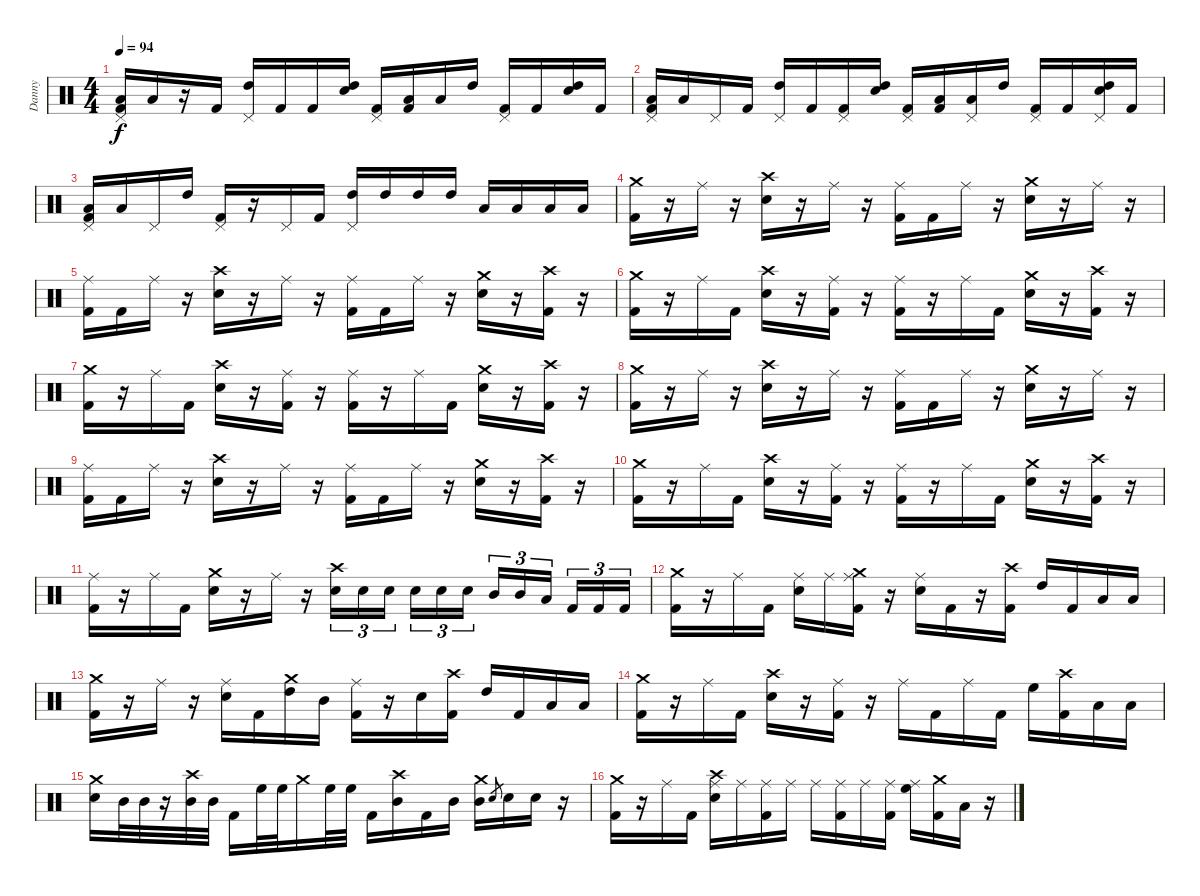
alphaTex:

\track ("Danny" "Danny") {instrument percussion}
\staff {score}
\articulation defaults
\ts (4 4)
\tempo 94
\clef neutral
\ks c
("Pedal Hi-Hat (hit)" "Low Floor Tom (hit)" "Kick (hit) 2").16{dy f} "Low Floor Tom (hit)".16 r.16 "Kick (hit) 2".16 ("Pedal Hi-Hat (hit)" "High Tom (hit)").16 "Kick (hit) 2".16 "Kick (hit) 2".16 ("High Tom (hit)" "Snare (hit) 2").16 ("Pedal Hi-Hat (hit)" "Kick (hit) 2").16 ("Low Floor Tom (hit)" "Kick (hit) 2").16 "Low Floor Tom (hit)".16 "High Tom (hit)".16 ("Pedal Hi-Hat (hit)" "Kick (hit) 2").16 "Kick (hit) 2".16 ("High Tom (hit)" "Snare (hit) 2").16 "Kick (hit) 2".16 |
("Pedal Hi-Hat (hit)" "Low Floor Tom (hit)" "Kick (hit) 2").16 "Low Floor Tom (hit)".16 "Pedal Hi-Hat (hit)".16 "Kick (hit) 2".16 ("Pedal Hi-Hat (hit)" "High Tom (hit)").16 "Kick (hit) 2".16 ("Pedal Hi-Hat (hit)" "Kick (hit) 2").16 ("High Tom (hit)" "Snare (hit) 2").16 ("Pedal Hi-Hat (hit)" "Kick (hit) 2").16 ("Low Floor Tom (hit)" "Kick (hit) 2").16 ("Pedal Hi-Hat (hit)" "Low Floor Tom (hit)").16 "High Tom (hit)".16 ("Pedal Hi-Hat (hit)" "Kick (hit) 2").16 "Kick (hit) 2".16 ("Pedal Hi-Hat (hit)" "High Tom (hit)" "Snare (hit) 2").16 "Kick (hit) 2".16 |
("Pedal Hi-Hat (hit)" "Low Floor Tom (hit)" "Kick (hit) 2").16 "Low Floor Tom (hit)".16 "Pedal Hi-Hat (hit)".16 "High Tom (hit)".16 ("Pedal Hi-Hat (hit)" "Kick (hit) 2").16 r.16 "Pedal Hi-Hat (hit)".16 "Kick (hit) 2".16 ("Pedal Hi-Hat (hit)" "High Tom (hit)").16 "High Tom (hit)".16 "High Tom (hit)".16 "High Tom (hit)".16 "Low Tom (hit)".16 "Low Tom (hit)".16 "Low Floor Tom (hit)".16 "Low Floor Tom (hit)".16 |
("Crash medium (hit)" "Kick (hit) 2").16 r.16 "Ride (middle)".16 r.16 ("Crash high (hit)" "Electric Snare (hit)").16 r.16 "Ride (middle)".16 r.16 ("Ride (middle)" "Kick (hit) 2").16 "Kick (hit) 2".16 "Ride (middle)".16 r.16 ("Crash medium (hit)" "Electric Snare (hit)").16 r.16 "Ride (middle)".16 r.16 |
("Ride (middle)" "Kick (hit) 2").16 "Kick (hit) 2".16 "Ride (middle)".16 r.16 ("Crash high (hit)" "Electric Snare (hit)").16 r.16 "Ride (middle)".16 r.16 ("Ride (middle)" "Kick (hit) 2").16 "Kick (hit) 2".16 "Ride (middle)".16 r.16 ("Crash medium (hit)" "Electric Snare (hit)").16 r.16 ("Crash high (hit)" "Kick (hit) 2").16 r.16 |
("Crash medium (hit)" "Kick (hit) 2").16 r.16 "Ride (middle)".16 "Kick (hit) 2".16 ("Crash high (hit)" "Electric Snare (hit)").16 r.16 ("Ride (middle)" "Kick (hit) 2").16 r.16 ("Ride (middle)" "Kick (hit) 2").16 r.16 "Ride (middle)".16 "Kick (hit) 2".16 ("Crash medium (hit)" "Electric Snare (hit)").16 r.16 ("Crash high (hit)" "Kick (hit) 2").16 r.16 |
("Crash medium (hit)" "Kick (hit) 2").16 r.16 "Ride (middle)".16 "Kick (hit) 2".16 ("Crash high (hit)" "Electric Snare (hit)").16 r.16 ("Ride (middle)" "Kick (hit) 2").16 r.16 ("Ride (middle)" "Kick (hit) 2").16 r.16 "Ride (middle)".16 "Kick (hit) 2".16 ("Crash medium (hit)" "Electric Snare (hit)").16 r.16 ("Crash high (hit)" "Kick (hit) 2").16 r.16 |
("Crash medium (hit)" "Kick (hit) 2").16 r.16 "Ride (middle)".16 r.16 ("Crash high (hit)" "Electric Snare (hit)").16 r.16 "Ride (middle)".16 r.16 ("Ride (middle)" "Kick (hit) 2").16 "Kick (hit) 2".16 "Ride (middle)".16 r.16 ("Crash medium (hit)" "Electric Snare (hit)").16 r.16 "Ride (middle)".16 r.16 |
("Ride (middle)" "Kick (hit) 2").16 "Kick (hit) 2".16 "Ride (middle)".16 r.16 ("Crash high (hit)" "Electric Snare (hit)").16 r.16 "Ride (middle)".16 r.16 ("Ride (middle)" "Kick (hit) 2").16 "Kick (hit) 2".16 "Ride (middle)".16 r.16 ("Crash medium (hit)" "Electric Snare (hit)").16 r.16 ("Crash high (hit)" "Kick (hit) 2").16 r.16 |
("Crash medium (hit)" "Kick (hit) 2").16 r.16 "Ride (middle)".16 "Kick (hit) 2".16 ("Crash high (hit)" "Electric Snare (hit)").16 r.16 ("Ride (middle)" "Kick (hit) 2").16 r.16 ("Ride (middle)" "Kick (hit) 2").16 r.16 "Ride (middle)".16 "Kick (hit) 2".16 ("Crash medium (hit)" "Electric Snare (hit)").16 r.16 ("Crash high (hit)" "Kick (hit) 2").16 r.16 |
("Ride (middle)" "Kick (hit) 2").16 r.16 "Ride (middle)".16 "Kick (hit) 2".16 ("Crash medium (hit)" "Electric Snare (hit)").16 r.16 "Ride (middle)".16 r.16 ("Crash high (hit)" "Electric Snare (hit)").16{tu (3 2)} "Electric Snare (hit)".16{tu (3 2)} "Electric Snare (hit)".16{tu (3 2)} "Electric Snare (hit)".16{tu (3 2)} "Electric Snare (hit)".16{tu (3 2)} "Electric Snare (hit)".16{tu (3 2)} "Mid Tom (hit)".16{tu (3 2)} "Mid Tom (hit)".16{tu (3 2)} "Low Tom (hit)".16{tu (3 2)} "Kick (hit) 2".16{tu (3 2)} "Kick (hit) 2".16{tu (3 2)} "Kick (hit) 2".16{tu (3 2)} |
("Crash medium (hit)" "Kick (hit) 2").16 r.16 "Ride (middle)".16 "Kick (hit) 2".16 ("Ride (middle)" "Electric Snare (hit)").16 "Ride (middle)".16 ("Crash medium (hit)" "Ride (middle)" "Kick (hit) 2").16 r.16 ("Ride (middle)" "Electric Snare (hit)").16 "Kick (hit) 2".16 r.16 ("Crash high (hit)" "Kick (hit) 2").16 "High Tom (hit)".16 "Kick (hit) 2".16 "Low Tom (hit)".16 "Low Tom (hit)".16 |
("Crash medium (hit)" "Kick (hit) 2").16 r.16 "Ride (middle)".16 r.16 ("Ride (middle)" "Electric Snare (hit)").16 "Kick (hit) 2".16 ("Crash medium (hit)" "High Tom (hit)").16 "Mid Tom (hit)".16 ("Ride (middle)" "Kick (hit) 2").16 r.16 "Electric Snare (hit)".16 ("Crash high (hit)" "Kick (hit) 2").16 "High Tom (hit)".16 "Kick (hit) 2".16 "Low Tom (hit)".16 "Low Tom (hit)".16 |
("Crash medium (hit)" "Kick (hit) 2").16 r.16 "Ride (middle)".16 "Kick (hit) 2".16 ("Crash high (hit)" "Electric Snare (hit)").16 r.16 ("Ride (middle)" "Kick (hit) 2").16 r.16 "Ride (middle)".16 "Kick (hit) 2".16 "Ride (middle)".16 "Kick (hit) 2".16 "High Floor Tom (hit)".16 ("Crash high (hit)" "Kick (hit) 2").16 "Low Floor Tom (hit)".16 "Low Floor Tom (hit)".16 |
("Crash medium (hit)" "Electric Snare (hit)").16 "Mid Tom (hit)".32 "Mid Tom (hit)".32 r.16 ("Crash high (hit)" "Mid Tom (hit)").32 "Mid Tom (hit)".32 "Kick (hit) 2".16 "High Floor Tom (hit)".32 "High Floor Tom (hit)".32 "Crash medium (hit)".16 "High Floor Tom (hit)".32 "High Floor Tom (hit)".32 "Kick (hit) 2".16 ("Crash high (hit)" "Mid Tom (hit)").16 "Kick (hit) 2".16 "Mid Tom (hit)".16 ("Crash medium (hit)" "Mid Tom (hit)").16 "Electric Snare (hit)".8{gr} "Electric Snare (hit)".16 "Electric Snare (hit)".16 r.16 |
("Crash medium (hit)" "Kick (hit) 2").16 r.16 "Ride (middle)".16 "Kick (hit) 2".16 ("Crash high (hit)" "Ride (middle)" "Electric Snare (hit)").16 "Ride (middle)".16 ("Ride (middle)" "Kick (hit) 2").16 "Ride (middle)".16 "Ride (middle)".16 ("Ride (middle)" "Kick (hit) 2").16 "Ride (middle)".16 ("Ride (middle)" "Kick (hit) 2").16 ("Ride (middle)" "High Floor Tom (hit)").16 ("Crash medium (hit)" "Kick (hit) 2").16 "Low Floor Tom (hit)".16 r.16
